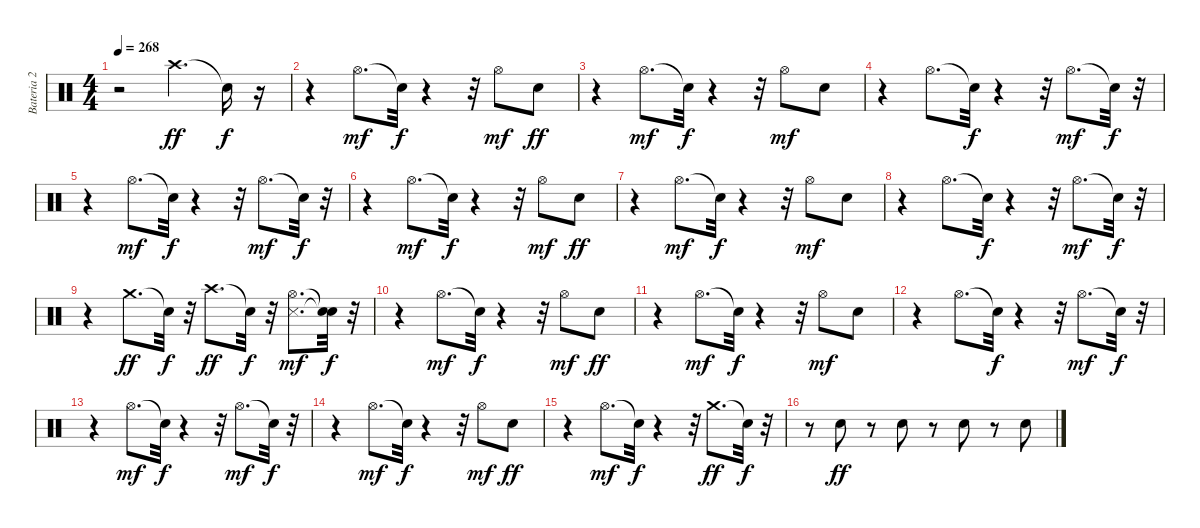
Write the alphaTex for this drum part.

\track ("Bateria 2" "Bateria 2") {instrument percussion}
\staff {score}
\articulation defaults
\ts (4 4)
\tempo 268
\clef neutral
\ks c
r.2{dy f} "Crash high (hit)".4{d dy ff} "Snare (hit)"{t}.16{dy f} r.16 |
r.4 "Hi-Hat (open)".8{d dy mf} "Snare (hit)"{t}.32{dy f} r.4 r.32 "Hi-Hat (open)".8{dy mf} "Electric Snare (hit)".8{dy ff} |
r.4 "Hi-Hat (open)".8{d dy mf} "Snare (hit)"{t}.32{dy f} r.4 r.32 "Hi-Hat (open)".8{dy mf} "Electric Snare (hit)".8 |
r.4 "Hi-Hat (open)".8{d} "Snare (hit)"{t}.32{dy f} r.4 r.32 "Hi-Hat (open)".8{d dy mf} "Snare (hit)"{t}.32{dy f} r.32 |
r.4 "Hi-Hat (open)".8{d dy mf} "Snare (hit)"{t}.32{dy f} r.4 r.32 "Hi-Hat (open)".8{d dy mf} "Snare (hit)"{t}.32{dy f} r.32 |
r.4 "Hi-Hat (open)".8{d dy mf} "Snare (hit)"{t}.32{dy f} r.4 r.32 "Hi-Hat (open)".8{dy mf} "Electric Snare (hit)".8{dy ff} |
r.4 "Hi-Hat (open)".8{d dy mf} "Snare (hit)"{t}.32{dy f} r.4 r.32 "Hi-Hat (open)".8{dy mf} "Electric Snare (hit)".8 |
r.4 "Hi-Hat (open)".8{d} "Snare (hit)"{t}.32{dy f} r.4 r.32 "Hi-Hat (open)".8{d dy mf} "Snare (hit)"{t}.32{dy f} r.32 |
r.4 "Crash medium (hit)".8{d dy ff} "Snare (hit)"{t}.32{dy f} r.32 "Crash high (hit)".8{d dy ff} "Snare (hit)"{t}.32{dy f} r.32 ("Snare (side stick) 3" "Hi-Hat (open)").8{d dy mf} ("Snare (hit)"{t} "Snare (hit)"{t}).32{dy f} r.32 |
r.4 "Hi-Hat (open)".8{d dy mf} "Snare (hit)"{t}.32{dy f} r.4 r.32 "Hi-Hat (open)".8{dy mf} "Electric Snare (hit)".8{dy ff} |
r.4 "Hi-Hat (open)".8{d dy mf} "Snare (hit)"{t}.32{dy f} r.4 r.32 "Hi-Hat (open)".8{dy mf} "Electric Snare (hit)".8 |
r.4 "Hi-Hat (open)".8{d} "Snare (hit)"{t}.32{dy f} r.4 r.32 "Hi-Hat (open)".8{d dy mf} "Snare (hit)"{t}.32{dy f} r.32 |
r.4 "Hi-Hat (open)".8{d dy mf} "Snare (hit)"{t}.32{dy f} r.4 r.32 "Hi-Hat (open)".8{d dy mf} "Snare (hit)"{t}.32{dy f} r.32 |
r.4 "Hi-Hat (open)".8{d dy mf} "Snare (hit)"{t}.32{dy f} r.4 r.32 "Hi-Hat (open)".8{dy mf} "Electric Snare (hit)".8{dy ff} |
r.4 "Hi-Hat (open)".8{d dy mf} "Snare (hit)"{t}.32{dy f} r.4 r.32 "Crash medium (hit)".8{d dy ff} "Snare (hit)"{t}.32{dy f} r.32 |
r.8 "Electric Snare (hit)".8{dy ff} r.8 "Electric Snare (hit)".8 r.8 "Electric Snare (hit)".8 r.8 "Electric Snare (hit)".8
